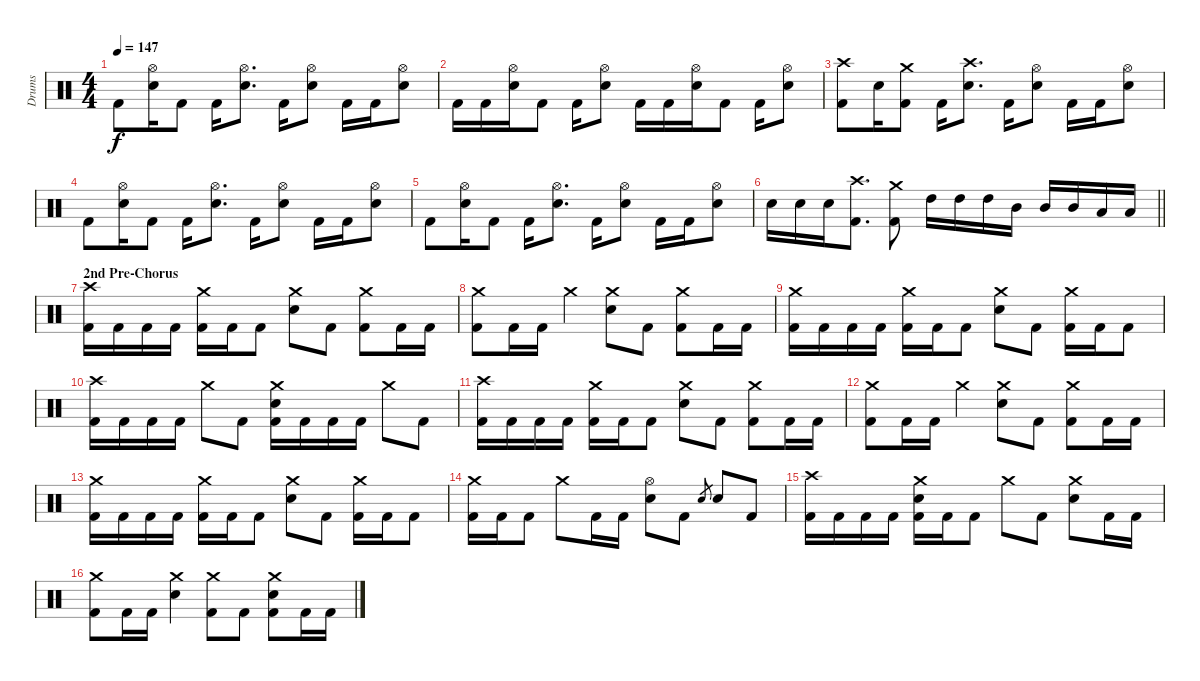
\track ("Drums" "Drums") {instrument percussion}
\staff {score}
\articulation defaults
\ts (4 4)
\tempo 147
\clef neutral
\ks c "Kick (hit) 2".8{dy f}
("Hi-Hat (open)" "Snare (hit) 2").16 "Kick (hit) 2".8 "Kick (hit) 2".16 ("Hi-Hat (open)" "Snare (hit) 2").8{d} "Kick (hit) 2".16 ("Hi-Hat (open)" "Snare (hit) 2").8 "Kick (hit) 2".16 "Kick (hit) 2".16 ("Hi-Hat (open)" "Snare (hit) 2").8 |
"Kick (hit) 2".16 "Kick (hit) 2".16 ("Hi-Hat (open)" "Snare (hit) 2").16 "Kick (hit) 2".8 "Kick (hit) 2".16 ("Hi-Hat (open)" "Snare (hit) 2").8 "Kick (hit) 2".16 "Kick (hit) 2".16 ("Hi-Hat (open)" "Snare (hit) 2").16 "Kick (hit) 2".8 "Kick (hit) 2".16 ("Hi-Hat (open)" "Snare (hit) 2").8 |
("Crash high (hit)" "Kick (hit) 2").8 "Snare (hit) 2".16 ("Crash medium (hit)" "Kick (hit) 2").8 "Kick (hit) 2".16 ("Crash high (hit)" "Snare (hit) 2").8{d} "Kick (hit) 2".16 ("Hi-Hat (open)" "Snare (hit) 2").8 "Kick (hit) 2".16 "Kick (hit) 2".16 ("Hi-Hat (open)" "Snare (hit) 2").8 |
"Kick (hit) 2".8 ("Hi-Hat (open)" "Snare (hit) 2").16 "Kick (hit) 2".8 "Kick (hit) 2".16 ("Hi-Hat (open)" "Snare (hit) 2").8{d} "Kick (hit) 2".16 ("Hi-Hat (open)" "Snare (hit) 2").8 "Kick (hit) 2".16 "Kick (hit) 2".16 ("Hi-Hat (open)" "Snare (hit) 2").8 |
"Kick (hit) 2".8 ("Hi-Hat (open)" "Snare (hit) 2").16 "Kick (hit) 2".8 "Kick (hit) 2".16 ("Hi-Hat (open)" "Snare (hit) 2").8{d} "Kick (hit) 2".16 ("Hi-Hat (open)" "Snare (hit) 2").8 "Kick (hit) 2".16 "Kick (hit) 2".16 ("Hi-Hat (open)" "Snare (hit) 2").8 |
\barLineRight lightlight "Snare (hit) 2".16 "Snare (hit) 2".16 "Snare (hit) 2".16
("Crash high (hit)" "Kick (hit) 2").8{d} ("Crash medium (hit)" "Kick (hit) 2").8 "High Tom (hit)".16 "High Tom (hit)".16 "High Tom (hit)".16 "Mid Tom (hit)".16 "Mid Tom (hit)".16 "Mid Tom (hit)".16 "Low Floor Tom (hit)".16 "Low Floor Tom (hit)".16 |
\section ("" "2nd Pre-Chorus")
("Crash high (hit)" "Kick (hit) 2").16 "Kick (hit) 2".16 "Kick (hit) 2".16 "Kick (hit) 2".16 ("Crash medium (hit)" "Kick (hit) 2").16 "Kick (hit) 2".16 "Kick (hit) 2".8 ("Crash medium (hit)" "Snare (hit) 2").8 "Kick (hit) 2".8 ("Crash medium (hit)" "Kick (hit) 2").8 "Kick (hit) 2".16 "Kick (hit) 2".16 |
("Crash medium (hit)" "Kick (hit) 2").8 "Kick (hit) 2".16 "Kick (hit) 2".16 "Crash medium (hit)".4 ("Crash medium (hit)" "Snare (hit) 2").8 "Kick (hit) 2".8 ("Crash medium (hit)" "Kick (hit) 2").8 "Kick (hit) 2".16 "Kick (hit) 2".16 |
("Crash medium (hit)" "Kick (hit) 2").16 "Kick (hit) 2".16 "Kick (hit) 2".16 "Kick (hit) 2".16 ("Crash medium (hit)" "Kick (hit) 2").16 "Kick (hit) 2".16 "Kick (hit) 2".8 ("Crash medium (hit)" "Snare (hit) 2").8 "Kick (hit) 2".8 ("Crash medium (hit)" "Kick (hit) 2").16 "Kick (hit) 2".16 "Kick (hit) 2".8 |
("Crash high (hit)" "Kick (hit) 2").16 "Kick (hit) 2".16 "Kick (hit) 2".16 "Kick (hit) 2".16 "Crash medium (hit)".8 "Kick (hit) 2".8 ("Crash medium (hit)" "Snare (hit) 2" "Kick (hit) 2").16 "Kick (hit) 2".16 "Kick (hit) 2".16 "Kick (hit) 2".16 "Crash medium (hit)".8 "Kick (hit) 2".8 |
("Crash high (hit)" "Kick (hit) 2").16 "Kick (hit) 2".16 "Kick (hit) 2".16 "Kick (hit) 2".16 ("Crash medium (hit)" "Kick (hit) 2").16 "Kick (hit) 2".16 "Kick (hit) 2".8 ("Crash medium (hit)" "Snare (hit) 2").8 "Kick (hit) 2".8 ("Crash medium (hit)" "Kick (hit) 2").8 "Kick (hit) 2".16 "Kick (hit) 2".16 |
("Crash medium (hit)" "Kick (hit) 2").8 "Kick (hit) 2".16 "Kick (hit) 2".16 "Crash medium (hit)".4 ("Crash medium (hit)" "Snare (hit) 2").8 "Kick (hit) 2".8 ("Crash medium (hit)" "Kick (hit) 2").8 "Kick (hit) 2".16 "Kick (hit) 2".16 |
("Crash medium (hit)" "Kick (hit) 2").16 "Kick (hit) 2".16 "Kick (hit) 2".16 "Kick (hit) 2".16 ("Crash medium (hit)" "Kick (hit) 2").16 "Kick (hit) 2".16 "Kick (hit) 2".8 ("Crash medium (hit)" "Snare (hit) 2").8 "Kick (hit) 2".8 ("Crash medium (hit)" "Kick (hit) 2").16 "Kick (hit) 2".16 "Kick (hit) 2".8 |
("Crash medium (hit)" "Kick (hit) 2").16 "Kick (hit) 2".16 "Kick (hit) 2".8 "Crash medium (hit)".8 "Kick (hit) 2".16 "Kick (hit) 2".16 ("Hi-Hat (open)" "Snare (hit) 2").8 "Kick (hit) 2".8 "Snare (hit) 2".8{gr} "Snare (hit) 2".8 "Kick (hit) 2".8 |
("Crash high (hit)" "Kick (hit) 2").16 "Kick (hit) 2".16 "Kick (hit) 2".16 "Kick (hit) 2".16 ("Crash medium (hit)" "Snare (hit) 2" "Kick (hit) 2").16 "Kick (hit) 2".16 "Kick (hit) 2".8 "Crash medium (hit)".8 "Kick (hit) 2".8 ("Crash medium (hit)" "Snare (hit) 2").8 "Kick (hit) 2".16 "Kick (hit) 2".16 |
("Crash medium (hit)" "Kick (hit) 2").8 "Kick (hit) 2".16 "Kick (hit) 2".16 ("Crash medium (hit)" "Snare (hit) 2").4 ("Crash medium (hit)" "Kick (hit) 2").8 "Kick (hit) 2".8 ("Crash medium (hit)" "Snare (hit) 2" "Kick (hit) 2").8 "Kick (hit) 2".16 "Kick (hit) 2".16
